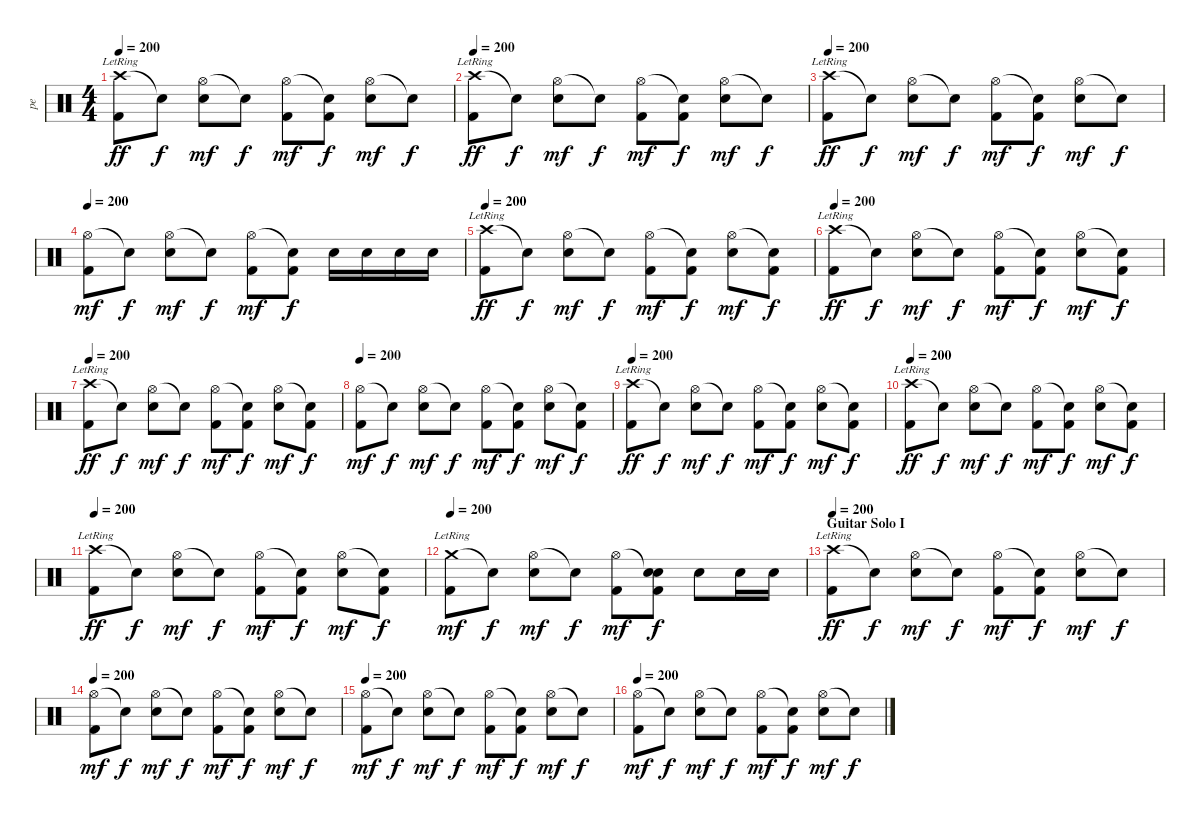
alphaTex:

\track ("pe" "pe") {instrument percussion}
\staff {score}
\articulation defaults
\ts (4 4)
\tempo 200
\clef neutral
\ks c
("Crash high (hit)"{lr} "Kick (hit) 2").8{dy ff} "Snare (hit)"{t}.8{dy f} ("Hi-Hat (open)" "Snare (hit) 2").8{dy mf} "Snare (hit)"{t}.8{dy f} ("Hi-Hat (open)" "Kick (hit) 2").8{dy mf} ("Snare (hit)"{t} "Kick (hit) 2").8{dy f} ("Hi-Hat (open)" "Snare (hit) 2").8{dy mf} "Snare (hit)"{t}.8{dy f} |
\tempo 200
("Crash high (hit)"{lr} "Kick (hit) 2").8{dy ff} "Snare (hit)"{t}.8{dy f} ("Hi-Hat (open)" "Snare (hit) 2").8{dy mf} "Snare (hit)"{t}.8{dy f} ("Hi-Hat (open)" "Kick (hit) 2").8{dy mf} ("Snare (hit)"{t} "Kick (hit) 2").8{dy f} ("Hi-Hat (open)" "Snare (hit) 2").8{dy mf} "Snare (hit)"{t}.8{dy f} |
\tempo 200
("Crash high (hit)"{lr} "Kick (hit) 2").8{dy ff} "Snare (hit)"{t}.8{dy f} ("Hi-Hat (open)" "Snare (hit) 2").8{dy mf} "Snare (hit)"{t}.8{dy f} ("Hi-Hat (open)" "Kick (hit) 2").8{dy mf} ("Snare (hit)"{t} "Kick (hit) 2").8{dy f} ("Hi-Hat (open)" "Snare (hit) 2").8{dy mf} "Snare (hit)"{t}.8{dy f} |
\tempo 200
("Hi-Hat (open)" "Kick (hit) 2").8{dy mf} "Snare (hit)"{t}.8{dy f} ("Hi-Hat (open)" "Snare (hit) 2").8{dy mf} "Snare (hit)"{t}.8{dy f} ("Hi-Hat (open)" "Kick (hit) 2").8{dy mf} ("Snare (hit)"{t} "Kick (hit) 2").8{dy f} "Snare (hit) 2".16 "Snare (hit) 2".16 "Snare (hit) 2".16 "Snare (hit) 2".16 |
\tempo 200
("Crash high (hit)"{lr} "Kick (hit) 2").8{dy ff} "Snare (hit)"{t}.8{dy f} ("Hi-Hat (open)" "Snare (hit) 2").8{dy mf} "Snare (hit)"{t}.8{dy f} ("Hi-Hat (open)" "Kick (hit) 2").8{dy mf} ("Snare (hit)"{t} "Kick (hit) 2").8{dy f} ("Hi-Hat (open)" "Snare (hit) 2").8{dy mf} ("Snare (hit)"{t} "Kick (hit) 2").8{dy f} |
\tempo 200
("Crash high (hit)"{lr} "Kick (hit) 2").8{dy ff} "Snare (hit)"{t}.8{dy f} ("Hi-Hat (open)" "Snare (hit) 2").8{dy mf} "Snare (hit)"{t}.8{dy f} ("Hi-Hat (open)" "Kick (hit) 2").8{dy mf} ("Snare (hit)"{t} "Kick (hit) 2").8{dy f} ("Hi-Hat (open)" "Snare (hit) 2").8{dy mf} ("Snare (hit)"{t} "Kick (hit) 2").8{dy f} |
\tempo 200
("Crash high (hit)"{lr} "Kick (hit) 2").8{dy ff} "Snare (hit)"{t}.8{dy f} ("Hi-Hat (open)" "Snare (hit) 2").8{dy mf} "Snare (hit)"{t}.8{dy f} ("Hi-Hat (open)" "Kick (hit) 2").8{dy mf} ("Snare (hit)"{t} "Kick (hit) 2").8{dy f} ("Hi-Hat (open)" "Snare (hit) 2").8{dy mf} ("Snare (hit)"{t} "Kick (hit) 2").8{dy f} |
\tempo 200
("Hi-Hat (open)" "Kick (hit) 2").8{dy mf} "Snare (hit)"{t}.8{dy f} ("Hi-Hat (open)" "Snare (hit) 2").8{dy mf} "Snare (hit)"{t}.8{dy f} ("Hi-Hat (open)" "Kick (hit) 2").8{dy mf} ("Snare (hit)"{t} "Kick (hit) 2").8{dy f} ("Hi-Hat (open)" "Snare (hit) 2").8{dy mf} ("Snare (hit)"{t} "Kick (hit) 2").8{dy f} |
\tempo 200
("Crash high (hit)"{lr} "Kick (hit) 2").8{dy ff} "Snare (hit)"{t}.8{dy f} ("Hi-Hat (open)" "Snare (hit) 2").8{dy mf} "Snare (hit)"{t}.8{dy f} ("Hi-Hat (open)" "Kick (hit) 2").8{dy mf} ("Snare (hit)"{t} "Kick (hit) 2").8{dy f} ("Hi-Hat (open)" "Snare (hit) 2").8{dy mf} ("Snare (hit)"{t} "Kick (hit) 2").8{dy f} |
\tempo 200
("Crash high (hit)"{lr} "Kick (hit) 2").8{dy ff} "Snare (hit)"{t}.8{dy f} ("Hi-Hat (open)" "Snare (hit) 2").8{dy mf} "Snare (hit)"{t}.8{dy f} ("Hi-Hat (open)" "Kick (hit) 2").8{dy mf} ("Snare (hit)"{t} "Kick (hit) 2").8{dy f} ("Hi-Hat (open)" "Snare (hit) 2").8{dy mf} ("Snare (hit)"{t} "Kick (hit) 2").8{dy f} |
\tempo 200
("Crash high (hit)"{lr} "Kick (hit) 2").8{dy ff} "Snare (hit)"{t}.8{dy f} ("Hi-Hat (open)" "Snare (hit) 2").8{dy mf} "Snare (hit)"{t}.8{dy f} ("Hi-Hat (open)" "Kick (hit) 2").8{dy mf} ("Snare (hit)"{t} "Kick (hit) 2").8{dy f} ("Hi-Hat (open)" "Snare (hit) 2").8{dy mf} ("Snare (hit)"{t} "Kick (hit) 2").8{dy f} |
\tempo 200
("Crash medium (hit)"{lr} "Kick (hit) 2").8{dy mf} "Snare (hit)"{t}.8{dy f} ("Hi-Hat (open)" "Snare (hit) 2").8{dy mf} "Snare (hit)"{t}.8{dy f} ("Hi-Hat (open)" "Kick (hit) 2").8{dy mf} ("Snare (hit)"{t} "Snare (hit) 2" "Kick (hit) 2").8{dy f} "Snare (hit) 2".8 "Snare (hit) 2".16 "Snare (hit) 2".16 |
\section ("" "Guitar Solo I")
\tempo 200
("Crash high (hit)"{lr} "Kick (hit) 2").8{dy ff} "Snare (hit)"{t}.8{dy f} ("Hi-Hat (open)" "Snare (hit) 2").8{dy mf} "Snare (hit)"{t}.8{dy f} ("Hi-Hat (open)" "Kick (hit) 2").8{dy mf} ("Snare (hit)"{t} "Kick (hit) 2").8{dy f} ("Hi-Hat (open)" "Snare (hit) 2").8{dy mf} "Snare (hit)"{t}.8{dy f} |
\tempo 200
("Hi-Hat (open)" "Kick (hit) 2").8{dy mf} "Snare (hit)"{t}.8{dy f} ("Hi-Hat (open)" "Snare (hit) 2").8{dy mf} "Snare (hit)"{t}.8{dy f} ("Hi-Hat (open)" "Kick (hit) 2").8{dy mf} ("Snare (hit)"{t} "Kick (hit) 2").8{dy f} ("Hi-Hat (open)" "Snare (hit) 2").8{dy mf} "Snare (hit)"{t}.8{dy f} |
\tempo 200
("Hi-Hat (open)" "Kick (hit) 2").8{dy mf} "Snare (hit)"{t}.8{dy f} ("Hi-Hat (open)" "Snare (hit) 2").8{dy mf} "Snare (hit)"{t}.8{dy f} ("Hi-Hat (open)" "Kick (hit) 2").8{dy mf} ("Snare (hit)"{t} "Kick (hit) 2").8{dy f} ("Hi-Hat (open)" "Snare (hit) 2").8{dy mf} "Snare (hit)"{t}.8{dy f} |
\tempo 200
("Hi-Hat (open)" "Kick (hit) 2").8{dy mf} "Snare (hit)"{t}.8{dy f} ("Hi-Hat (open)" "Snare (hit) 2").8{dy mf} "Snare (hit)"{t}.8{dy f} ("Hi-Hat (open)" "Kick (hit) 2").8{dy mf} ("Snare (hit)"{t} "Kick (hit) 2").8{dy f} ("Hi-Hat (open)" "Snare (hit) 2").8{dy mf} "Snare (hit)"{t}.8{dy f}
